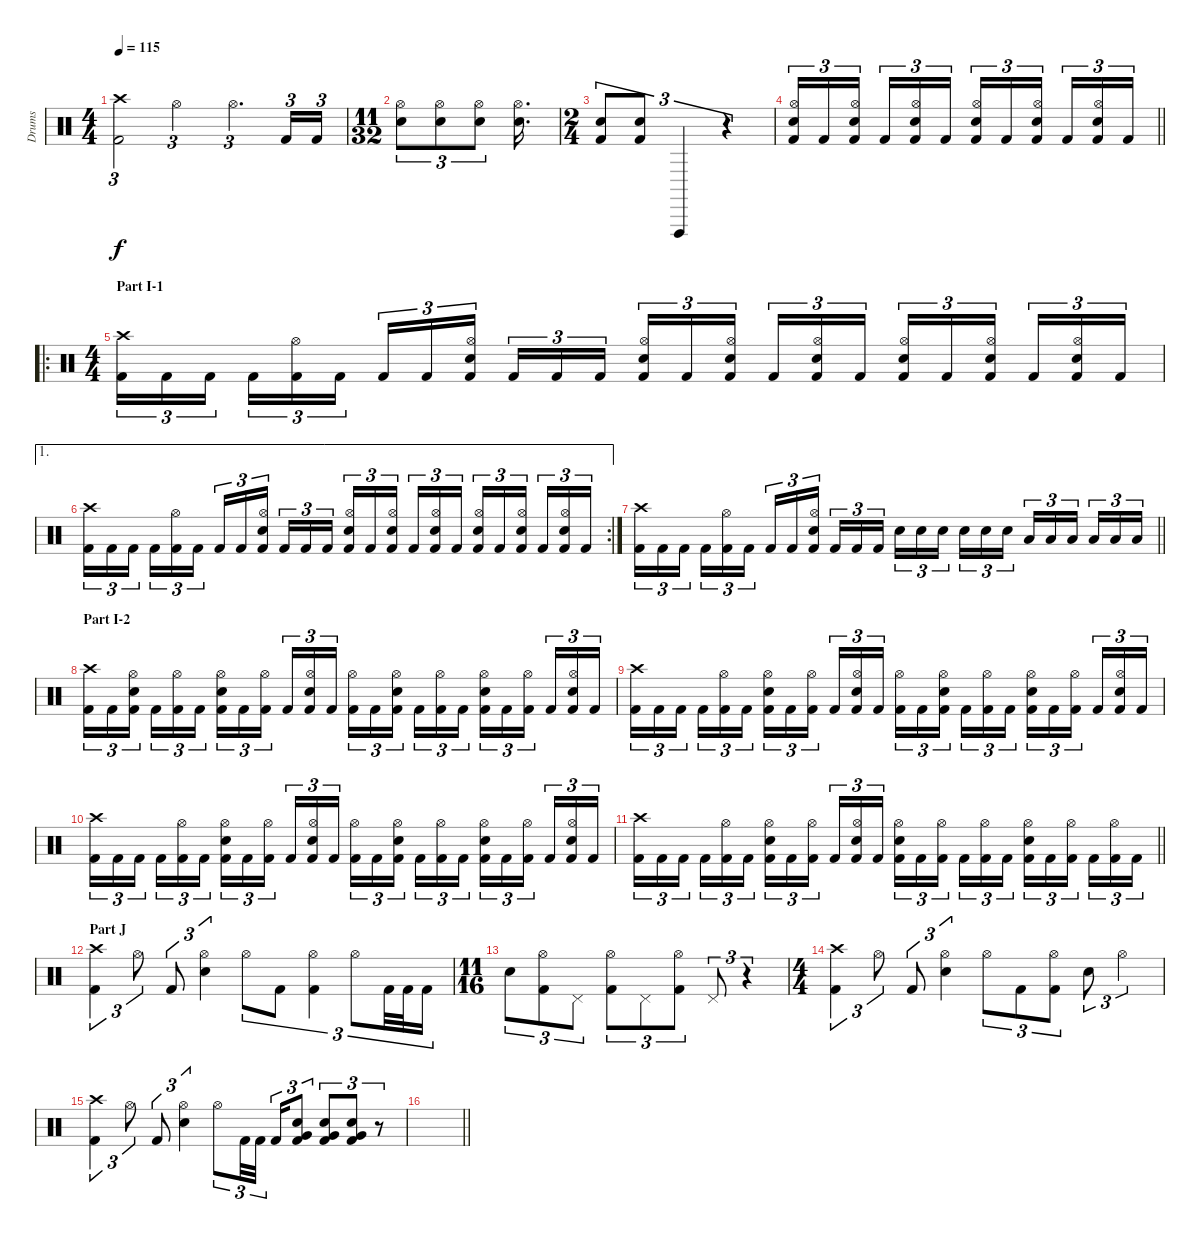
\track ("Drums" "Drums") {instrument percussion}
\staff {score}
\articulation defaults
\ts (4 4)
\tempo 115
\clef neutral
\ks c
("Crash high (hit)" "Kick (hit) 2").2{tu (3 2) dy f} "Hi-Hat (open)".2{tu (3 2)} "Hi-Hat (open)".4{d tu (3 2)} "Kick (hit) 2".16{tu (3 2)} "Kick (hit) 2".16{tu (3 2)} |
\ts (11 32)
("Snare (hit) 2" "Hi-Hat (open)").8{tu (3 2)} ("Snare (hit) 2" "Hi-Hat (open)").8{tu (3 2)} ("Snare (hit) 2" "Hi-Hat (open)").8{tu (3 2)} ("Snare (hit) 2" "Hi-Hat (open)").16{d} |
\ts (2 4)
("Snare (hit) 2" "Kick (hit) 2").8{tu (3 2)} ("Snare (hit) 2" "Kick (hit) 2").8{tu (3 2)} "Vibraslap (hit)".4{tu (3 2)} r.4{tu (3 2)} |
\barLineRight lightlight
("Kick (hit) 2" "Snare (hit) 2" "Hi-Hat (open)").16{tu (3 2)} "Kick (hit) 2".16{tu (3 2)} ("Kick (hit) 2" "Hi-Hat (open)" "Snare (hit) 2").16{tu (3 2) beam splitsecondary} "Kick (hit) 2".16{tu (3 2)} ("Kick (hit) 2" "Snare (hit) 2" "Hi-Hat (open)").16{tu (3 2)} "Kick (hit) 2".16{tu (3 2)} ("Kick (hit) 2" "Snare (hit) 2" "Hi-Hat (open)").16{tu (3 2)} "Kick (hit) 2".16{tu (3 2)} ("Kick (hit) 2" "Snare (hit) 2" "Hi-Hat (open)").16{tu (3 2) beam splitsecondary} "Kick (hit) 2".16{tu (3 2)} ("Kick (hit) 2" "Snare (hit) 2" "Hi-Hat (open)").16{tu (3 2)} "Kick (hit) 2".16{tu (3 2)} |
\ro
\ts (4 4)
\section ("" "Part I-1")
("Kick (hit) 2" "Crash high (hit)").16{tu (3 2)} "Kick (hit) 2".16{tu (3 2)} "Kick (hit) 2".16{tu (3 2) beam splitsecondary} "Kick (hit) 2".16{tu (3 2)} ("Kick (hit) 2" "Hi-Hat (open)").16{tu (3 2)} "Kick (hit) 2".16{tu (3 2)} "Kick (hit) 2".16{tu (3 2)} "Kick (hit) 2".16{tu (3 2)} ("Kick (hit) 2" "Hi-Hat (open)" "Snare (hit) 2").16{tu (3 2) beam splitsecondary} "Kick (hit) 2".16{tu (3 2)} "Kick (hit) 2".16{tu (3 2)} "Kick (hit) 2".16{tu (3 2)} ("Kick (hit) 2" "Snare (hit) 2" "Hi-Hat (open)").16{tu (3 2)} "Kick (hit) 2".16{tu (3 2)} ("Kick (hit) 2" "Hi-Hat (open)" "Snare (hit) 2").16{tu (3 2) beam splitsecondary} "Kick (hit) 2".16{tu (3 2)} ("Kick (hit) 2" "Snare (hit) 2" "Hi-Hat (open)").16{tu (3 2)} "Kick (hit) 2".16{tu (3 2)} ("Kick (hit) 2" "Snare (hit) 2" "Hi-Hat (open)").16{tu (3 2)} "Kick (hit) 2".16{tu (3 2)} ("Kick (hit) 2" "Snare (hit) 2" "Hi-Hat (open)").16{tu (3 2) beam splitsecondary} "Kick (hit) 2".16{tu (3 2)} ("Kick (hit) 2" "Snare (hit) 2" "Hi-Hat (open)").16{tu (3 2)} "Kick (hit) 2".16{tu (3 2)} |
\ae 1
\rc 2
("Kick (hit) 2" "Crash high (hit)").16{tu (3 2)} "Kick (hit) 2".16{tu (3 2)} "Kick (hit) 2".16{tu (3 2) beam splitsecondary} "Kick (hit) 2".16{tu (3 2)} ("Kick (hit) 2" "Hi-Hat (open)").16{tu (3 2)} "Kick (hit) 2".16{tu (3 2)} "Kick (hit) 2".16{tu (3 2)} "Kick (hit) 2".16{tu (3 2)} ("Kick (hit) 2" "Hi-Hat (open)" "Snare (hit) 2").16{tu (3 2) beam splitsecondary} "Kick (hit) 2".16{tu (3 2)} "Kick (hit) 2".16{tu (3 2)} "Kick (hit) 2".16{tu (3 2)} ("Kick (hit) 2" "Snare (hit) 2" "Hi-Hat (open)").16{tu (3 2)} "Kick (hit) 2".16{tu (3 2)} ("Kick (hit) 2" "Hi-Hat (open)" "Snare (hit) 2").16{tu (3 2) beam splitsecondary} "Kick (hit) 2".16{tu (3 2)} ("Kick (hit) 2" "Snare (hit) 2" "Hi-Hat (open)").16{tu (3 2)} "Kick (hit) 2".16{tu (3 2)} ("Kick (hit) 2" "Snare (hit) 2" "Hi-Hat (open)").16{tu (3 2)} "Kick (hit) 2".16{tu (3 2)} ("Kick (hit) 2" "Snare (hit) 2" "Hi-Hat (open)").16{tu (3 2) beam splitsecondary} "Kick (hit) 2".16{tu (3 2)} ("Kick (hit) 2" "Snare (hit) 2" "Hi-Hat (open)").16{tu (3 2)} "Kick (hit) 2".16{tu (3 2)} |
\barLineRight lightlight
("Kick (hit) 2" "Crash high (hit)").16{tu (3 2)} "Kick (hit) 2".16{tu (3 2)} "Kick (hit) 2".16{tu (3 2) beam splitsecondary} "Kick (hit) 2".16{tu (3 2)} ("Kick (hit) 2" "Hi-Hat (open)").16{tu (3 2)} "Kick (hit) 2".16{tu (3 2)} "Kick (hit) 2".16{tu (3 2)} "Kick (hit) 2".16{tu (3 2)} ("Kick (hit) 2" "Hi-Hat (open)" "Snare (hit) 2").16{tu (3 2) beam splitsecondary} "Kick (hit) 2".16{tu (3 2)} "Kick (hit) 2".16{tu (3 2)} "Kick (hit) 2".16{tu (3 2)} "Snare (hit) 2".16{tu (3 2)} "Snare (hit) 2".16{tu (3 2)} "Snare (hit) 2".16{tu (3 2) beam splitsecondary} "Snare (hit) 2".16{tu (3 2)} "Snare (hit) 2".16{tu (3 2)} "Snare (hit) 2".16{tu (3 2)} "Low Tom (hit)".16{tu (3 2)} "Low Tom (hit)".16{tu (3 2)} "Low Tom (hit)".16{tu (3 2) beam splitsecondary} "Low Tom (hit)".16{tu (3 2)} "Low Tom (hit)".16{tu (3 2)} "Low Tom (hit)".16{tu (3 2)} |
\section ("" "Part I-2")
("Crash high (hit)" "Kick (hit) 2").16{tu (3 2)} "Kick (hit) 2".16{tu (3 2)} ("Kick (hit) 2" "Snare (hit) 2" "Hi-Hat (open)").16{tu (3 2) beam splitsecondary} "Kick (hit) 2".16{tu (3 2)} ("Kick (hit) 2" "Hi-Hat (open)").16{tu (3 2)} "Kick (hit) 2".16{tu (3 2)} ("Kick (hit) 2" "Hi-Hat (open)" "Snare (hit) 2").16{tu (3 2)} "Kick (hit) 2".16{tu (3 2)} ("Kick (hit) 2" "Hi-Hat (open)").16{tu (3 2) beam splitsecondary} "Kick (hit) 2".16{tu (3 2)} ("Kick (hit) 2" "Hi-Hat (open)" "Snare (hit) 2").16{tu (3 2)} "Kick (hit) 2".16{tu (3 2)} ("Kick (hit) 2" "Hi-Hat (open)").16{tu (3 2)} "Kick (hit) 2".16{tu (3 2)} ("Kick (hit) 2" "Hi-Hat (open)" "Snare (hit) 2").16{tu (3 2) beam splitsecondary} "Kick (hit) 2".16{tu (3 2)} ("Kick (hit) 2" "Hi-Hat (open)").16{tu (3 2)} "Kick (hit) 2".16{tu (3 2)} ("Kick (hit) 2" "Hi-Hat (open)" "Snare (hit) 2").16{tu (3 2)} "Kick (hit) 2".16{tu (3 2)} ("Kick (hit) 2" "Hi-Hat (open)").16{tu (3 2) beam splitsecondary} "Kick (hit) 2".16{tu (3 2)} ("Kick (hit) 2" "Hi-Hat (open)" "Snare (hit) 2").16{tu (3 2)} "Kick (hit) 2".16{tu (3 2)} |
("Crash high (hit)" "Kick (hit) 2").16{tu (3 2)} "Kick (hit) 2".16{tu (3 2)} "Kick (hit) 2".16{tu (3 2) beam splitsecondary} "Kick (hit) 2".16{tu (3 2)} ("Kick (hit) 2" "Hi-Hat (open)").16{tu (3 2)} "Kick (hit) 2".16{tu (3 2)} ("Kick (hit) 2" "Hi-Hat (open)" "Snare (hit) 2").16{tu (3 2)} "Kick (hit) 2".16{tu (3 2)} ("Kick (hit) 2" "Hi-Hat (open)").16{tu (3 2) beam splitsecondary} "Kick (hit) 2".16{tu (3 2)} ("Kick (hit) 2" "Hi-Hat (open)" "Snare (hit) 2").16{tu (3 2)} "Kick (hit) 2".16{tu (3 2)} ("Kick (hit) 2" "Hi-Hat (open)").16{tu (3 2)} "Kick (hit) 2".16{tu (3 2)} ("Kick (hit) 2" "Hi-Hat (open)" "Snare (hit) 2").16{tu (3 2) beam splitsecondary} "Kick (hit) 2".16{tu (3 2)} ("Kick (hit) 2" "Hi-Hat (open)").16{tu (3 2)} "Kick (hit) 2".16{tu (3 2)} ("Kick (hit) 2" "Hi-Hat (open)" "Snare (hit) 2").16{tu (3 2)} "Kick (hit) 2".16{tu (3 2)} ("Kick (hit) 2" "Hi-Hat (open)").16{tu (3 2) beam splitsecondary} "Kick (hit) 2".16{tu (3 2)} ("Kick (hit) 2" "Hi-Hat (open)" "Snare (hit) 2").16{tu (3 2)} "Kick (hit) 2".16{tu (3 2)} |
("Crash high (hit)" "Kick (hit) 2").16{tu (3 2)} "Kick (hit) 2".16{tu (3 2)} "Kick (hit) 2".16{tu (3 2) beam splitsecondary} "Kick (hit) 2".16{tu (3 2)} ("Kick (hit) 2" "Hi-Hat (open)").16{tu (3 2)} "Kick (hit) 2".16{tu (3 2)} ("Kick (hit) 2" "Hi-Hat (open)" "Snare (hit) 2").16{tu (3 2)} "Kick (hit) 2".16{tu (3 2)} ("Kick (hit) 2" "Hi-Hat (open)").16{tu (3 2) beam splitsecondary} "Kick (hit) 2".16{tu (3 2)} ("Kick (hit) 2" "Hi-Hat (open)" "Snare (hit) 2").16{tu (3 2)} "Kick (hit) 2".16{tu (3 2)} ("Kick (hit) 2" "Hi-Hat (open)").16{tu (3 2)} "Kick (hit) 2".16{tu (3 2)} ("Kick (hit) 2" "Hi-Hat (open)" "Snare (hit) 2").16{tu (3 2) beam splitsecondary} "Kick (hit) 2".16{tu (3 2)} ("Kick (hit) 2" "Hi-Hat (open)").16{tu (3 2)} "Kick (hit) 2".16{tu (3 2)} ("Kick (hit) 2" "Hi-Hat (open)" "Snare (hit) 2").16{tu (3 2)} "Kick (hit) 2".16{tu (3 2)} ("Kick (hit) 2" "Hi-Hat (open)").16{tu (3 2) beam splitsecondary} "Kick (hit) 2".16{tu (3 2)} ("Kick (hit) 2" "Hi-Hat (open)" "Snare (hit) 2").16{tu (3 2)} "Kick (hit) 2".16{tu (3 2)} |
\barLineRight lightlight
("Crash high (hit)" "Kick (hit) 2").16{tu (3 2)} "Kick (hit) 2".16{tu (3 2)} "Kick (hit) 2".16{tu (3 2) beam splitsecondary} "Kick (hit) 2".16{tu (3 2)} ("Kick (hit) 2" "Hi-Hat (open)").16{tu (3 2)} "Kick (hit) 2".16{tu (3 2)} ("Kick (hit) 2" "Hi-Hat (open)" "Snare (hit) 2").16{tu (3 2)} "Kick (hit) 2".16{tu (3 2)} ("Kick (hit) 2" "Hi-Hat (open)").16{tu (3 2) beam splitsecondary} "Kick (hit) 2".16{tu (3 2)} ("Kick (hit) 2" "Hi-Hat (open)" "Snare (hit) 2").16{tu (3 2)} "Kick (hit) 2".16{tu (3 2)} ("Kick (hit) 2" "Hi-Hat (open)" "Snare (hit) 2").16{tu (3 2)} "Kick (hit) 2".16{tu (3 2)} ("Kick (hit) 2" "Hi-Hat (open)").16{tu (3 2) beam splitsecondary} "Kick (hit) 2".16{tu (3 2)} ("Kick (hit) 2" "Hi-Hat (open)").16{tu (3 2)} "Kick (hit) 2".16{tu (3 2)} ("Kick (hit) 2" "Hi-Hat (open)" "Snare (hit) 2").16{tu (3 2)} "Kick (hit) 2".16{tu (3 2)} ("Kick (hit) 2" "Hi-Hat (open)").16{tu (3 2) beam splitsecondary} "Kick (hit) 2".16{tu (3 2)} ("Kick (hit) 2" "Hi-Hat (open)").16{tu (3 2)} "Kick (hit) 2".16{tu (3 2)} |
\section ("" "Part J")
("Kick (hit) 2" "Crash high (hit)").4{tu (3 2)} "Hi-Hat (open)".8{tu (3 2)} "Kick (hit) 2".8{tu (3 2)} ("Hi-Hat (open)" "Snare (hit) 2").4{tu (3 2)} "Hi-Hat (open)".8{tu (3 2)} "Kick (hit) 2".8{tu (3 2)} ("Kick (hit) 2" "Hi-Hat (open)").4{tu (3 2)} "Hi-Hat (open)".8{tu (3 2)} "Kick (hit) 2".32{tu (3 2)} "Kick (hit) 2".32{tu (3 2)} "Kick (hit) 2".16{tu (3 2)} |
\ts (11 16)
"Snare (hit) 2".8{tu (3 2)} ("Kick (hit) 2" "Hi-Hat (open)").8{tu (3 2)} "Pedal Hi-Hat (hit)".8{tu (3 2)} ("Kick (hit) 2" "Hi-Hat (open)").8{tu (3 2)} "Pedal Hi-Hat (hit)".8{tu (3 2)} ("Kick (hit) 2" "Hi-Hat (open)").8{tu (3 2)} "Pedal Hi-Hat (hit)".8{tu (3 2)} r.4{tu (3 2)} |
\ts (4 4)
("Kick (hit) 2" "Crash high (hit)").4{tu (3 2)} "Hi-Hat (open)".8{tu (3 2)} "Kick (hit) 2".8{tu (3 2)} ("Hi-Hat (open)" "Snare (hit) 2").4{tu (3 2)} "Hi-Hat (open)".8{tu (3 2)} "Kick (hit) 2".8{tu (3 2)} ("Kick (hit) 2" "Hi-Hat (open)").8{tu (3 2)} "Snare (hit) 2".8{tu (3 2)} "Hi-Hat (open)".4{tu (3 2)} |
("Kick (hit) 2" "Crash high (hit)").4{tu (3 2)} "Hi-Hat (open)".8{tu (3 2)} "Kick (hit) 2".8{tu (3 2)} ("Hi-Hat (open)" "Snare (hit) 2").4{tu (3 2)} "Hi-Hat (open)".8{tu (3 2)} "Kick (hit) 2".32{tu (3 2)} "Kick (hit) 2".32{tu (3 2) beam splitsecondary} "Kick (hit) 2".16{tu (3 2)} ("Snare (hit) 2" "Kick (hit) 2" "Very Low Tom (hit)").8{tu (3 2)} ("Snare (hit) 2" "Kick (hit) 2" "Very Low Tom (hit)").8{tu (3 2)} ("Snare (hit) 2" "Kick (hit) 2" "Very Low Tom (hit)").8{tu (3 2)} r.8{tu (3 2)} |
\barLineRight lightlight
